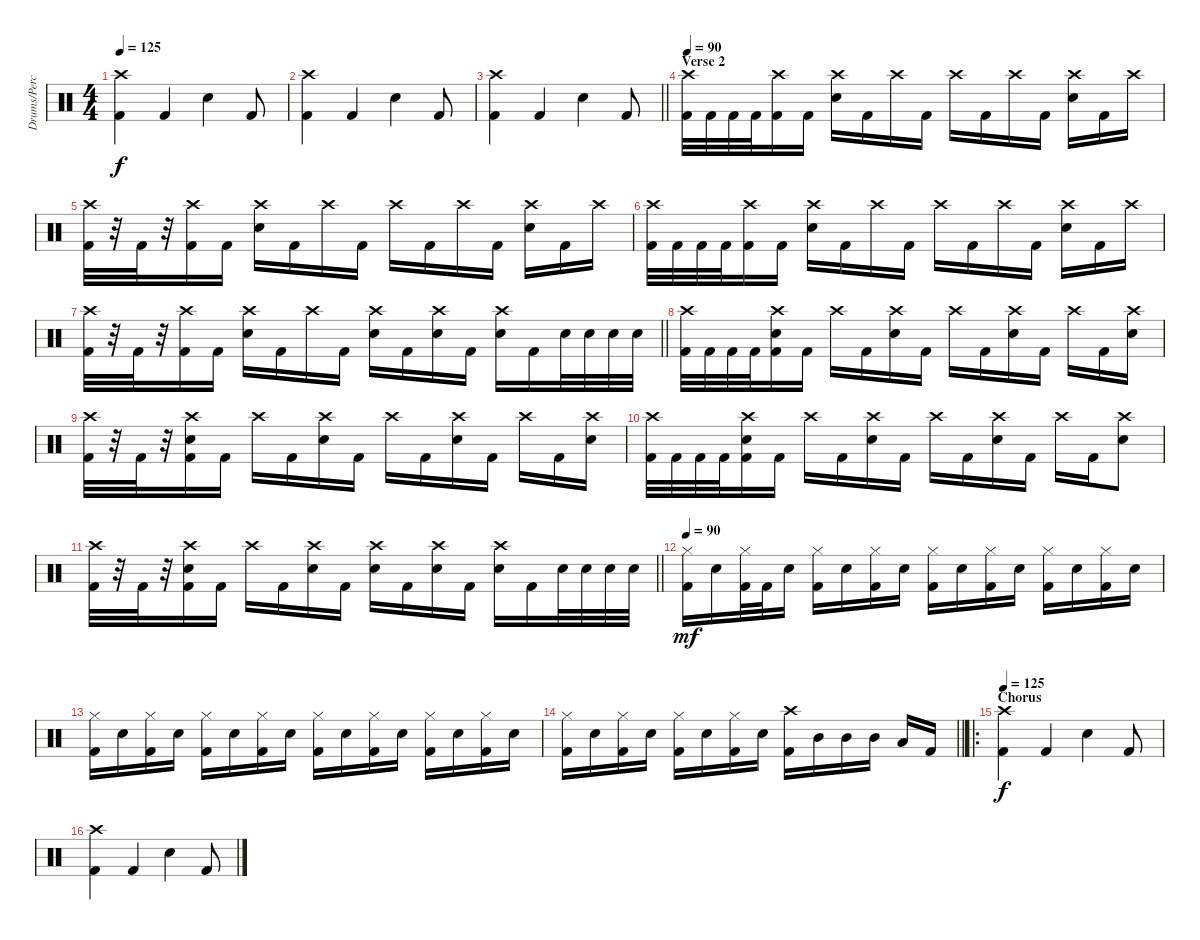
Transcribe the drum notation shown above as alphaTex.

\track ("Drums/Perc" "Drums/Perc") {instrument percussion}
\staff {score}
\articulation defaults
\ts (4 4)
\tempo 125
\clef neutral
\ks c
("Crash high (hit)" "Kick (hit) 2").4{dy f} "Kick (hit) 2".4 "Snare (hit) 2".4 "Kick (hit) 2".8 |
("Crash high (hit)" "Kick (hit) 2").4 "Kick (hit) 2".4 "Snare (hit) 2".4 "Kick (hit) 2".8 |
\barLineRight lightlight
("Crash high (hit)" "Kick (hit) 2").4 "Kick (hit) 2".4 "Snare (hit) 2".4 "Kick (hit) 2".8 |
\section ("" "Verse 2")
\tempo 90
("Crash high (hit)" "Kick (hit) 2").32 "Kick (hit) 2".32 "Kick (hit) 2".32 "Kick (hit) 2".32 ("Crash high (hit)" "Kick (hit) 2").16 "Kick (hit) 2".16 ("Crash high (hit)" "Snare (hit) 2").16 "Kick (hit) 2".16 "Crash high (hit)".16 "Kick (hit) 2".16 "Crash high (hit)".16 "Kick (hit) 2".16 "Crash high (hit)".16 "Kick (hit) 2".16 ("Crash high (hit)" "Snare (hit) 2").16 "Kick (hit) 2".16 "Crash high (hit)".16 |
("Crash high (hit)" "Kick (hit) 2").32 r.32 "Kick (hit) 2".32 r.32 ("Crash high (hit)" "Kick (hit) 2").16 "Kick (hit) 2".16 ("Crash high (hit)" "Snare (hit) 2").16 "Kick (hit) 2".16 "Crash high (hit)".16 "Kick (hit) 2".16 "Crash high (hit)".16 "Kick (hit) 2".16 "Crash high (hit)".16 "Kick (hit) 2".16 ("Crash high (hit)" "Snare (hit) 2").16 "Kick (hit) 2".16 "Crash high (hit)".16 |
("Crash high (hit)" "Kick (hit) 2").32 "Kick (hit) 2".32 "Kick (hit) 2".32 "Kick (hit) 2".32 ("Crash high (hit)" "Kick (hit) 2").16 "Kick (hit) 2".16 ("Crash high (hit)" "Snare (hit) 2").16 "Kick (hit) 2".16 "Crash high (hit)".16 "Kick (hit) 2".16 "Crash high (hit)".16 "Kick (hit) 2".16 "Crash high (hit)".16 "Kick (hit) 2".16 ("Crash high (hit)" "Snare (hit) 2").16 "Kick (hit) 2".16 "Crash high (hit)".16 |
\barLineRight lightlight
("Crash high (hit)" "Kick (hit) 2").32 r.32 "Kick (hit) 2".32 r.32 ("Crash high (hit)" "Kick (hit) 2").16 "Kick (hit) 2".16 ("Crash high (hit)" "Snare (hit) 2").16 "Kick (hit) 2".16 "Crash high (hit)".16 "Kick (hit) 2".16 ("Crash high (hit)" "Snare (hit) 2").16 "Kick (hit) 2".16 ("Crash high (hit)" "Snare (hit) 2").16 "Kick (hit) 2".16 ("Crash high (hit)" "Snare (hit) 2").16 "Kick (hit) 2".16 "Snare (hit) 2".32 "Snare (hit) 2".32 "Snare (hit) 2".32 "Snare (hit) 2".32 |
("Crash high (hit)" "Kick (hit) 2").32 "Kick (hit) 2".32 "Kick (hit) 2".32 "Kick (hit) 2".32 ("Crash high (hit)" "Snare (hit) 2" "Kick (hit) 2").16 "Kick (hit) 2".16 "Crash high (hit)".16 "Kick (hit) 2".16 ("Crash high (hit)" "Snare (hit) 2").16 "Kick (hit) 2".16 "Crash high (hit)".16 "Kick (hit) 2".16 ("Crash high (hit)" "Snare (hit) 2").16 "Kick (hit) 2".16 "Crash high (hit)".16 "Kick (hit) 2".16 ("Crash high (hit)" "Snare (hit) 2").16 |
("Crash high (hit)" "Kick (hit) 2").32 r.32 "Kick (hit) 2".32 r.32 ("Crash high (hit)" "Snare (hit) 2" "Kick (hit) 2").16 "Kick (hit) 2".16 "Crash high (hit)".16 "Kick (hit) 2".16 ("Crash high (hit)" "Snare (hit) 2").16 "Kick (hit) 2".16 "Crash high (hit)".16 "Kick (hit) 2".16 ("Crash high (hit)" "Snare (hit) 2").16 "Kick (hit) 2".16 "Crash high (hit)".16 "Kick (hit) 2".16 ("Crash high (hit)" "Snare (hit) 2").16 |
("Crash high (hit)" "Kick (hit) 2").32 "Kick (hit) 2".32 "Kick (hit) 2".32 "Kick (hit) 2".32 ("Crash high (hit)" "Snare (hit) 2" "Kick (hit) 2").16 "Kick (hit) 2".16 "Crash high (hit)".16 "Kick (hit) 2".16 ("Crash high (hit)" "Snare (hit) 2").16 "Kick (hit) 2".16 "Crash high (hit)".16 "Kick (hit) 2".16 ("Crash high (hit)" "Snare (hit) 2").16 "Kick (hit) 2".16 "Crash high (hit)".16 "Kick (hit) 2".16 ("Crash high (hit)" "Snare (hit) 2").8 |
\barLineRight lightlight
("Crash high (hit)" "Kick (hit) 2").32 r.32 "Kick (hit) 2".32 r.32 ("Crash high (hit)" "Snare (hit) 2" "Kick (hit) 2").16 "Kick (hit) 2".16 "Crash high (hit)".16 "Kick (hit) 2".16 ("Crash high (hit)" "Snare (hit) 2").16 "Kick (hit) 2".16 ("Crash high (hit)" "Snare (hit) 2").16 "Kick (hit) 2".16 ("Crash high (hit)" "Snare (hit) 2").16 "Kick (hit) 2".16 ("Crash high (hit)" "Snare (hit) 2").16 "Kick (hit) 2".16 "Snare (hit) 2".32 "Snare (hit) 2".32 "Snare (hit) 2".32 "Snare (hit) 2".32 |
\tempo 90
("Hi-Hat (closed)" "Kick (hit) 2").16{dy mf} "Snare (hit) 2".16 ("Hi-Hat (closed)" "Kick (hit) 2").32 "Kick (hit) 2".32 "Snare (hit) 2".16 ("Hi-Hat (closed)" "Kick (hit) 2").16 "Snare (hit) 2".16 ("Hi-Hat (closed)" "Kick (hit) 2").16 "Snare (hit) 2".16 ("Hi-Hat (closed)" "Kick (hit) 2").16 "Snare (hit) 2".16 ("Hi-Hat (closed)" "Kick (hit) 2").16 "Snare (hit) 2".16 ("Hi-Hat (closed)" "Kick (hit) 2").16 "Snare (hit) 2".16 ("Hi-Hat (closed)" "Kick (hit) 2").16 "Snare (hit) 2".16 |
("Hi-Hat (closed)" "Kick (hit) 2").16 "Snare (hit) 2".16 ("Hi-Hat (closed)" "Kick (hit) 2").16 "Snare (hit) 2".16 ("Hi-Hat (closed)" "Kick (hit) 2").16 "Snare (hit) 2".16 ("Hi-Hat (closed)" "Kick (hit) 2").16 "Snare (hit) 2".16 ("Hi-Hat (closed)" "Kick (hit) 2").16 "Snare (hit) 2".16 ("Hi-Hat (closed)" "Kick (hit) 2").16 "Snare (hit) 2".16 ("Hi-Hat (closed)" "Kick (hit) 2").16 "Snare (hit) 2".16 ("Hi-Hat (closed)" "Kick (hit) 2").16 "Snare (hit) 2".16 |
\barLineRight lightlight
("Hi-Hat (closed)" "Kick (hit) 2").16 "Snare (hit) 2".16 ("Hi-Hat (closed)" "Kick (hit) 2").16 "Snare (hit) 2".16 ("Hi-Hat (closed)" "Kick (hit) 2").16 "Snare (hit) 2".16 ("Hi-Hat (closed)" "Kick (hit) 2").16 "Snare (hit) 2".16 ("Crash high (hit)" "Kick (hit) 2").16 "Mid Tom (hit)".16 "Mid Tom (hit)".16 "Mid Tom (hit)".16 "Low Tom (hit)".16 "Kick (hit) 2".16 |
\ro
\section ("" "Chorus")
\tempo 125
("Crash high (hit)" "Kick (hit) 2").4{dy f} "Kick (hit) 2".4 "Snare (hit) 2".4 "Kick (hit) 2".8 |
("Crash high (hit)" "Kick (hit) 2").4 "Kick (hit) 2".4 "Snare (hit) 2".4 "Kick (hit) 2".8
